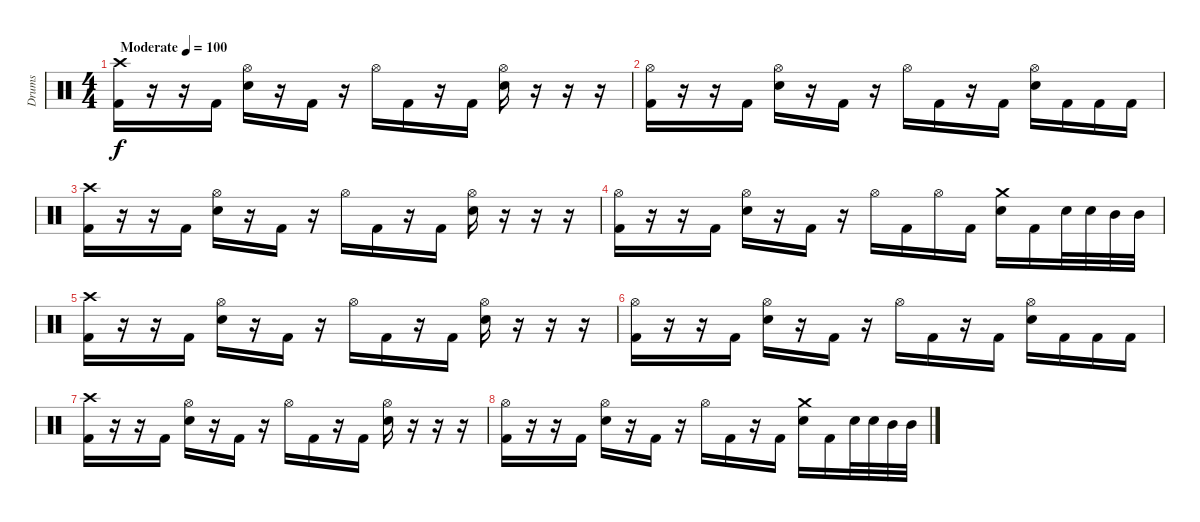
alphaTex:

\track ("Drums" "Drums") {instrument percussion}
\staff {score}
\articulation defaults
\ts (4 4)
\tempo (100 "Moderate")
\clef neutral
\ks c
("Crash high (hit)" "Kick (hit) 2").16{dy f} r.16 r.16 "Kick (hit) 2".16 ("Hi-Hat (open)" "Snare (hit) 2").16 r.16 "Kick (hit) 2".16 r.16 "Hi-Hat (open)".16 "Kick (hit) 2".16 r.16 "Kick (hit) 2".16 ("Hi-Hat (open)" "Snare (hit) 2").16 r.16 r.16 r.16 |
("Hi-Hat (open)" "Kick (hit) 2").16 r.16 r.16 "Kick (hit) 2".16 ("Hi-Hat (open)" "Snare (hit) 2").16 r.16 "Kick (hit) 2".16 r.16 "Hi-Hat (open)".16 "Kick (hit) 2".16 r.16 "Kick (hit) 2".16 ("Hi-Hat (open)" "Snare (hit) 2").16 "Kick (hit) 2".16 "Kick (hit) 2".16 "Kick (hit) 2".16 |
("Crash high (hit)" "Kick (hit) 2").16 r.16 r.16 "Kick (hit) 2".16 ("Hi-Hat (open)" "Snare (hit) 2").16 r.16 "Kick (hit) 2".16 r.16 "Hi-Hat (open)".16 "Kick (hit) 2".16 r.16 "Kick (hit) 2".16 ("Hi-Hat (open)" "Snare (hit) 2").16 r.16 r.16 r.16 |
("Hi-Hat (open)" "Kick (hit) 2").16 r.16 r.16 "Kick (hit) 2".16 ("Hi-Hat (open)" "Snare (hit) 2").16 r.16 "Kick (hit) 2".16 r.16 "Hi-Hat (open)".16 "Kick (hit) 2".16 "Hi-Hat (open)".16 "Kick (hit) 2".16 ("Crash medium (hit)" "Snare (hit) 2").16 "Kick (hit) 2".16 "Snare (hit) 2".32 "Snare (hit) 2".32 "Mid Tom (hit)".32 "Mid Tom (hit)".32 |
("Crash high (hit)" "Kick (hit) 2").16 r.16 r.16 "Kick (hit) 2".16 ("Hi-Hat (open)" "Snare (hit) 2").16 r.16 "Kick (hit) 2".16 r.16 "Hi-Hat (open)".16 "Kick (hit) 2".16 r.16 "Kick (hit) 2".16 ("Hi-Hat (open)" "Snare (hit) 2").16 r.16 r.16 r.16 |
("Hi-Hat (open)" "Kick (hit) 2").16 r.16 r.16 "Kick (hit) 2".16 ("Hi-Hat (open)" "Snare (hit) 2").16 r.16 "Kick (hit) 2".16 r.16 "Hi-Hat (open)".16 "Kick (hit) 2".16 r.16 "Kick (hit) 2".16 ("Hi-Hat (open)" "Snare (hit) 2").16 "Kick (hit) 2".16 "Kick (hit) 2".16 "Kick (hit) 2".16 |
("Crash high (hit)" "Kick (hit) 2").16 r.16 r.16 "Kick (hit) 2".16 ("Hi-Hat (open)" "Snare (hit) 2").16 r.16 "Kick (hit) 2".16 r.16 "Hi-Hat (open)".16 "Kick (hit) 2".16 r.16 "Kick (hit) 2".16 ("Hi-Hat (open)" "Snare (hit) 2").16 r.16 r.16 r.16 |
("Hi-Hat (open)" "Kick (hit) 2").16 r.16 r.16 "Kick (hit) 2".16 ("Hi-Hat (open)" "Snare (hit) 2").16 r.16 "Kick (hit) 2".16 r.16 "Hi-Hat (open)".16 "Kick (hit) 2".16 r.16 "Kick (hit) 2".16 ("Crash medium (hit)" "Snare (hit) 2").16 "Kick (hit) 2".16 "Snare (hit) 2".32 "Snare (hit) 2".32 "Mid Tom (hit)".32 "Mid Tom (hit)".32
